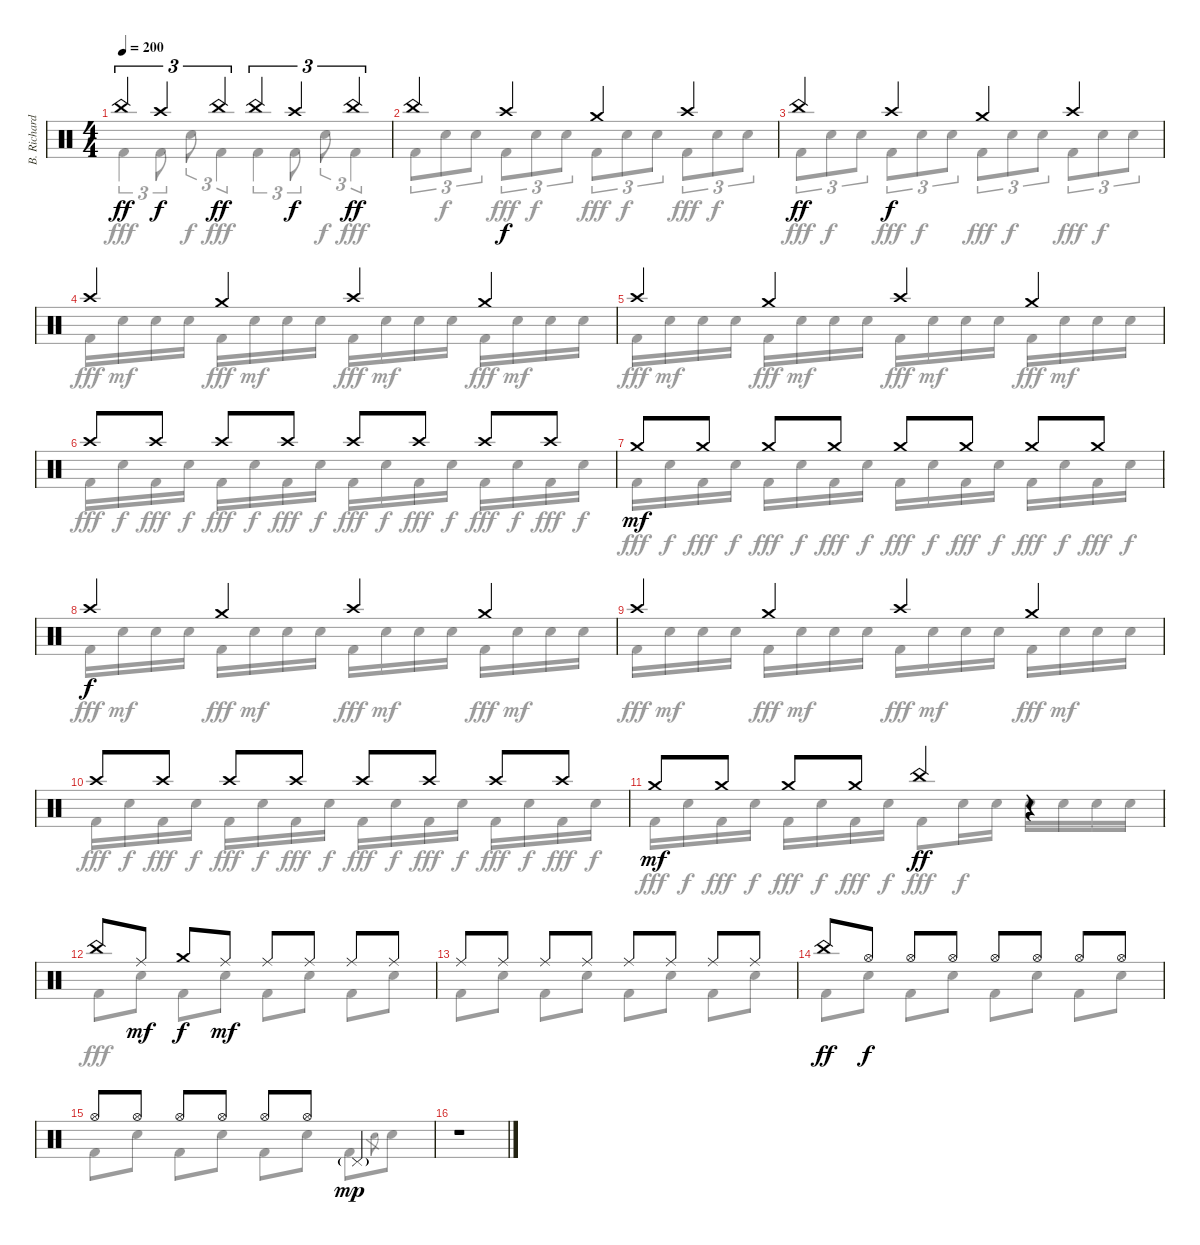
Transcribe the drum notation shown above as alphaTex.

\track ("B. Richardson Drums" "B. Richard") {instrument percussion}
\staff {score}
\articulation defaults
\voice
\ts (4 4)
\tempo 200
\clef neutral
\ks c "China (hit)".4{tu (3 2) dy ff} "Crash high (hit)".4{tu (3 2) dy f} "China (hit)".4{tu (3 2) dy ff} "China (hit)".4{tu (3 2)} "Crash high (hit)".4{tu (3 2) dy f} "China (hit)".4{tu (3 2) dy ff}
|
"China (hit)".4 "Crash high (hit)".4{dy f} "Crash medium (hit)".4 "Crash high (hit)".4 |
"China (hit)".4{dy ff} "Crash high (hit)".4{dy f} "Crash medium (hit)".4 "Crash high (hit)".4 |
"Crash high (hit)".4 "Crash medium (hit)".4 "Crash high (hit)".4 "Crash medium (hit)".4 |
"Crash high (hit)".4 "Crash medium (hit)".4 "Crash high (hit)".4 "Crash medium (hit)".4 |
"Crash high (hit)".8 "Crash high (hit)".8 "Crash high (hit)".8 "Crash high (hit)".8 "Crash high (hit)".8 "Crash high (hit)".8 "Crash high (hit)".8 "Crash high (hit)".8 |
"Crash medium (hit)".8{dy mf} "Crash medium (hit)".8 "Crash medium (hit)".8 "Crash medium (hit)".8 "Crash medium (hit)".8 "Crash medium (hit)".8 "Crash medium (hit)".8 "Crash medium (hit)".8 |
"Crash high (hit)".4{dy f} "Crash medium (hit)".4 "Crash high (hit)".4 "Crash medium (hit)".4 |
"Crash high (hit)".4 "Crash medium (hit)".4 "Crash high (hit)".4 "Crash medium (hit)".4 |
"Crash high (hit)".8 "Crash high (hit)".8 "Crash high (hit)".8 "Crash high (hit)".8 "Crash high (hit)".8 "Crash high (hit)".8 "Crash high (hit)".8 "Crash high (hit)".8 |
"Crash medium (hit)".8{dy mf} "Crash medium (hit)".8 "Crash medium (hit)".8 "Crash medium (hit)".8 "China (hit)".4{dy ff} r.4 |
"China (hit)".8 "Ride (middle)".8{dy mf} "Crash medium (hit)".8{dy f} "Ride (middle)".8{dy mf} "Ride (middle)".8 "Ride (middle)".8 "Ride (middle)".8 "Ride (middle)".8 |
"Ride (middle)".8 "Ride (middle)".8 "Ride (middle)".8 "Ride (middle)".8 "Ride (middle)".8 "Ride (middle)".8 "Ride (middle)".8 "Ride (middle)".8 |
"China (hit)".8{dy ff} "Hi-Hat (open)".8{dy f} "Hi-Hat (open)".8 "Hi-Hat (open)".8 "Hi-Hat (open)".8 "Hi-Hat (open)".8 "Hi-Hat (open)".8 "Hi-Hat (open)".8 |
"Hi-Hat (open)".8 "Hi-Hat (open)".8 "Hi-Hat (open)".8 "Hi-Hat (open)".8 "Hi-Hat (open)".8 "Hi-Hat (open)".8 "Pedal Hi-Hat (hit)"{g}.4{dy mp} |
r.1
\voice
\clef neutral
\ottava regular
\simile none
\ks c "Kick (hit) 2".4{tu (3 2) dy fff} "Kick (hit) 2".8{tu (3 2)} "Electric Snare (hit)".8{tu (3 2) dy f} "Kick (hit) 2".4{tu (3 2) dy fff} "Kick (hit) 2".4{tu (3 2)} "Kick (hit) 2".8{tu (3 2)} "Electric Snare (hit)".8{tu (3 2) dy f} "Kick (hit) 2".4{tu (3 2) dy fff}
|
"Kick (hit) 2".8{tu (3 2)} "Electric Snare (hit)".8{tu (3 2) dy f} "Electric Snare (hit)".8{tu (3 2)} "Kick (hit) 2".8{tu (3 2) dy fff} "Electric Snare (hit)".8{tu (3 2) dy f} "Electric Snare (hit)".8{tu (3 2)} "Kick (hit) 2".8{tu (3 2) dy fff} "Electric Snare (hit)".8{tu (3 2) dy f} "Electric Snare (hit)".8{tu (3 2)} "Kick (hit) 2".8{tu (3 2) dy fff} "Electric Snare (hit)".8{tu (3 2) dy f} "Electric Snare (hit)".8{tu (3 2)} |
"Kick (hit) 2".8{tu (3 2) dy fff} "Electric Snare (hit)".8{tu (3 2) dy f} "Electric Snare (hit)".8{tu (3 2)} "Kick (hit) 2".8{tu (3 2) dy fff} "Electric Snare (hit)".8{tu (3 2) dy f} "Electric Snare (hit)".8{tu (3 2)} "Kick (hit) 2".8{tu (3 2) dy fff} "Electric Snare (hit)".8{tu (3 2) dy f} "Electric Snare (hit)".8{tu (3 2)} "Kick (hit) 2".8{tu (3 2) dy fff} "Electric Snare (hit)".8{tu (3 2) dy f} "Electric Snare (hit)".8{tu (3 2)} |
"Kick (hit) 2".16{dy fff} "Electric Snare (hit)".16{dy mf} "Electric Snare (hit)".16 "Electric Snare (hit)".16 "Kick (hit) 2".16{dy fff} "Electric Snare (hit)".16{dy mf} "Electric Snare (hit)".16 "Electric Snare (hit)".16 "Kick (hit) 2".16{dy fff} "Electric Snare (hit)".16{dy mf} "Electric Snare (hit)".16 "Electric Snare (hit)".16 "Kick (hit) 2".16{dy fff} "Electric Snare (hit)".16{dy mf} "Electric Snare (hit)".16 "Electric Snare (hit)".16 |
"Kick (hit) 2".16{dy fff} "Electric Snare (hit)".16{dy mf} "Electric Snare (hit)".16 "Electric Snare (hit)".16 "Kick (hit) 2".16{dy fff} "Electric Snare (hit)".16{dy mf} "Electric Snare (hit)".16 "Electric Snare (hit)".16 "Kick (hit) 2".16{dy fff} "Electric Snare (hit)".16{dy mf} "Electric Snare (hit)".16 "Electric Snare (hit)".16 "Kick (hit) 2".16{dy fff} "Electric Snare (hit)".16{dy mf} "Electric Snare (hit)".16 "Electric Snare (hit)".16 |
"Kick (hit) 2".16{dy fff} "Electric Snare (hit)".16{dy f} "Kick (hit) 2".16{dy fff} "Electric Snare (hit)".16{dy f} "Kick (hit) 2".16{dy fff} "Electric Snare (hit)".16{dy f} "Kick (hit) 2".16{dy fff} "Electric Snare (hit)".16{dy f} "Kick (hit) 2".16{dy fff} "Electric Snare (hit)".16{dy f} "Kick (hit) 2".16{dy fff} "Electric Snare (hit)".16{dy f} "Kick (hit) 2".16{dy fff} "Electric Snare (hit)".16{dy f} "Kick (hit) 2".16{dy fff} "Electric Snare (hit)".16{dy f} |
"Kick (hit) 2".16{dy fff} "Electric Snare (hit)".16{dy f} "Kick (hit) 2".16{dy fff} "Electric Snare (hit)".16{dy f} "Kick (hit) 2".16{dy fff} "Electric Snare (hit)".16{dy f} "Kick (hit) 2".16{dy fff} "Electric Snare (hit)".16{dy f} "Kick (hit) 2".16{dy fff} "Electric Snare (hit)".16{dy f} "Kick (hit) 2".16{dy fff} "Electric Snare (hit)".16{dy f} "Kick (hit) 2".16{dy fff} "Electric Snare (hit)".16{dy f} "Kick (hit) 2".16{dy fff} "Electric Snare (hit)".16{dy f} |
"Kick (hit) 2".16{dy fff} "Electric Snare (hit)".16{dy mf} "Electric Snare (hit)".16 "Electric Snare (hit)".16 "Kick (hit) 2".16{dy fff} "Electric Snare (hit)".16{dy mf} "Electric Snare (hit)".16 "Electric Snare (hit)".16 "Kick (hit) 2".16{dy fff} "Electric Snare (hit)".16{dy mf} "Electric Snare (hit)".16 "Electric Snare (hit)".16 "Kick (hit) 2".16{dy fff} "Electric Snare (hit)".16{dy mf} "Electric Snare (hit)".16 "Electric Snare (hit)".16 |
"Kick (hit) 2".16{dy fff} "Electric Snare (hit)".16{dy mf} "Electric Snare (hit)".16 "Electric Snare (hit)".16 "Kick (hit) 2".16{dy fff} "Electric Snare (hit)".16{dy mf} "Electric Snare (hit)".16 "Electric Snare (hit)".16 "Kick (hit) 2".16{dy fff} "Electric Snare (hit)".16{dy mf} "Electric Snare (hit)".16 "Electric Snare (hit)".16 "Kick (hit) 2".16{dy fff} "Electric Snare (hit)".16{dy mf} "Electric Snare (hit)".16 "Electric Snare (hit)".16 |
"Kick (hit) 2".16{dy fff} "Electric Snare (hit)".16{dy f} "Kick (hit) 2".16{dy fff} "Electric Snare (hit)".16{dy f} "Kick (hit) 2".16{dy fff} "Electric Snare (hit)".16{dy f} "Kick (hit) 2".16{dy fff} "Electric Snare (hit)".16{dy f} "Kick (hit) 2".16{dy fff} "Electric Snare (hit)".16{dy f} "Kick (hit) 2".16{dy fff} "Electric Snare (hit)".16{dy f} "Kick (hit) 2".16{dy fff} "Electric Snare (hit)".16{dy f} "Kick (hit) 2".16{dy fff} "Electric Snare (hit)".16{dy f} |
"Kick (hit) 2".16{dy fff} "Electric Snare (hit)".16{dy f} "Kick (hit) 2".16{dy fff} "Electric Snare (hit)".16{dy f} "Kick (hit) 2".16{dy fff} "Electric Snare (hit)".16{dy f} "Kick (hit) 2".16{dy fff} "Electric Snare (hit)".16{dy f} "Kick (hit) 2".8{dy fff} "Electric Snare (hit)".16{dy f} "Electric Snare (hit)".16 "Electric Snare (hit)".16 "Electric Snare (hit)".16 "Electric Snare (hit)".16 "Electric Snare (hit)".16 |
"Kick (hit) 2".8{dy fff} "Electric Snare (hit)".8 "Kick (hit) 2".8 "Electric Snare (hit)".8 "Kick (hit) 2".8 "Electric Snare (hit)".8 "Kick (hit) 2".8 "Electric Snare (hit)".8 |
"Kick (hit) 2".8 "Electric Snare (hit)".8 "Kick (hit) 2".8 "Electric Snare (hit)".8 "Kick (hit) 2".8 "Electric Snare (hit)".8 "Kick (hit) 2".8 "Electric Snare (hit)".8 |
"Kick (hit) 2".8 "Electric Snare (hit)".8 "Kick (hit) 2".8 "Electric Snare (hit)".8 "Kick (hit) 2".8 "Electric Snare (hit)".8 "Kick (hit) 2".8 "Electric Snare (hit)".8 |
"Kick (hit) 2".8 "Electric Snare (hit)".8 "Kick (hit) 2".8 "Electric Snare (hit)".8 "Kick (hit) 2".8 "Electric Snare (hit)".8 "Kick (hit) 2".8 "Electric Snare (hit)".8{gr} "Electric Snare (hit)".8 |
r.1
